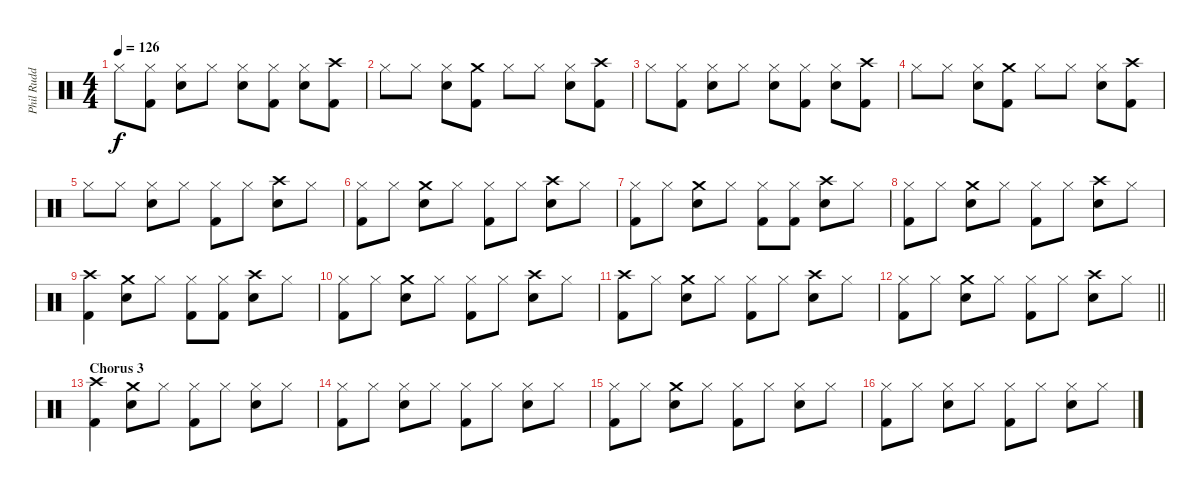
\track ("Phil Rudd (Drums)" "Phil Rudd ") {instrument percussion}
\staff {score}
\articulation defaults
\ts (4 4)
\tempo 126
\clef neutral
\ks c "Hi-Hat (closed)".8{dy f}
("Hi-Hat (closed)" "Kick (hit) 2").8 ("Hi-Hat (closed)" "Snare (hit) 2").8 "Hi-Hat (closed)".8 ("Hi-Hat (closed)" "Snare (hit) 2").8 ("Hi-Hat (closed)" "Kick (hit) 2").8 ("Hi-Hat (closed)" "Snare (hit) 2").8 ("Crash high (hit)" "Kick (hit) 2").8 |
"Hi-Hat (closed)".8 "Hi-Hat (closed)".8 ("Hi-Hat (closed)" "Snare (hit) 2").8 ("Crash medium (hit)" "Kick (hit) 2").8 "Hi-Hat (closed)".8 "Hi-Hat (closed)".8 ("Hi-Hat (closed)" "Snare (hit) 2").8 ("Crash high (hit)" "Kick (hit) 2").8 |
"Hi-Hat (closed)".8 ("Hi-Hat (closed)" "Kick (hit) 2").8 ("Hi-Hat (closed)" "Snare (hit) 2").8 "Hi-Hat (closed)".8 ("Hi-Hat (closed)" "Snare (hit) 2").8 ("Hi-Hat (closed)" "Kick (hit) 2").8 ("Hi-Hat (closed)" "Snare (hit) 2").8 ("Crash high (hit)" "Kick (hit) 2").8 |
"Hi-Hat (closed)".8 "Hi-Hat (closed)".8 ("Hi-Hat (closed)" "Snare (hit) 2").8 ("Crash medium (hit)" "Kick (hit) 2").8 "Hi-Hat (closed)".8 "Hi-Hat (closed)".8 ("Hi-Hat (closed)" "Snare (hit) 2").8 ("Crash high (hit)" "Kick (hit) 2").8 |
"Hi-Hat (closed)".8 "Hi-Hat (closed)".8 ("Hi-Hat (closed)" "Snare (hit) 2").8 "Hi-Hat (closed)".8 ("Hi-Hat (closed)" "Kick (hit) 2").8 "Hi-Hat (closed)".8 ("Crash high (hit)" "Snare (hit) 2").8 "Hi-Hat (closed)".8 |
("Hi-Hat (closed)" "Kick (hit) 2").8 "Hi-Hat (closed)".8 ("Crash medium (hit)" "Snare (hit) 2").8 "Hi-Hat (closed)".8 ("Hi-Hat (closed)" "Kick (hit) 2").8 "Hi-Hat (closed)".8 ("Crash high (hit)" "Snare (hit) 2").8 "Hi-Hat (closed)".8 |
("Hi-Hat (closed)" "Kick (hit) 2").8 "Hi-Hat (closed)".8 ("Crash medium (hit)" "Snare (hit) 2").8 "Hi-Hat (closed)".8 ("Hi-Hat (closed)" "Kick (hit) 2").8 ("Hi-Hat (closed)" "Kick (hit) 2").8 ("Crash high (hit)" "Snare (hit) 2").8 "Hi-Hat (closed)".8 |
("Hi-Hat (closed)" "Kick (hit) 2").8 "Hi-Hat (closed)".8 ("Crash medium (hit)" "Snare (hit) 2").8 "Hi-Hat (closed)".8 ("Hi-Hat (closed)" "Kick (hit) 2").8 "Hi-Hat (closed)".8 ("Crash high (hit)" "Snare (hit) 2").8 "Hi-Hat (closed)".8 |
("Crash high (hit)" "Kick (hit) 2").4 ("Crash medium (hit)" "Snare (hit) 2").8 "Hi-Hat (closed)".8 ("Hi-Hat (closed)" "Kick (hit) 2").8 ("Hi-Hat (closed)" "Kick (hit) 2").8 ("Crash high (hit)" "Snare (hit) 2").8 "Hi-Hat (closed)".8 |
("Hi-Hat (closed)" "Kick (hit) 2").8 "Hi-Hat (closed)".8 ("Crash medium (hit)" "Snare (hit) 2").8 "Hi-Hat (closed)".8 ("Hi-Hat (closed)" "Kick (hit) 2").8 "Hi-Hat (closed)".8 ("Crash high (hit)" "Snare (hit) 2").8 "Hi-Hat (closed)".8 |
("Crash high (hit)" "Kick (hit) 2").8 "Hi-Hat (closed)".8 ("Crash medium (hit)" "Snare (hit) 2").8 "Hi-Hat (closed)".8 ("Hi-Hat (closed)" "Kick (hit) 2").8 "Hi-Hat (closed)".8 ("Crash high (hit)" "Snare (hit) 2").8 "Hi-Hat (closed)".8 |
\barLineRight lightlight
("Hi-Hat (closed)" "Kick (hit) 2").8 "Hi-Hat (closed)".8 ("Crash medium (hit)" "Snare (hit) 2").8 "Hi-Hat (closed)".8 ("Hi-Hat (closed)" "Kick (hit) 2").8 "Hi-Hat (closed)".8 ("Crash high (hit)" "Snare (hit) 2").8 "Hi-Hat (closed)".8 |
\section ("" "Chorus 3")
("Crash high (hit)" "Kick (hit) 2").4 ("Crash medium (hit)" "Snare (hit) 2").8 "Hi-Hat (closed)".8 ("Hi-Hat (closed)" "Kick (hit) 2").8 "Hi-Hat (closed)".8 ("Hi-Hat (closed)" "Snare (hit) 2").8 "Hi-Hat (closed)".8 |
("Hi-Hat (closed)" "Kick (hit) 2").8 "Hi-Hat (closed)".8 ("Hi-Hat (closed)" "Snare (hit) 2").8 "Hi-Hat (closed)".8 ("Hi-Hat (closed)" "Kick (hit) 2").8 "Hi-Hat (closed)".8 ("Hi-Hat (closed)" "Snare (hit) 2").8 "Hi-Hat (closed)".8 |
("Hi-Hat (closed)" "Kick (hit) 2").8 "Hi-Hat (closed)".8 ("Crash medium (hit)" "Snare (hit) 2").8 "Hi-Hat (closed)".8 ("Hi-Hat (closed)" "Kick (hit) 2").8 "Hi-Hat (closed)".8 ("Hi-Hat (closed)" "Snare (hit) 2").8 "Hi-Hat (closed)".8 |
("Hi-Hat (closed)" "Kick (hit) 2").8 "Hi-Hat (closed)".8 ("Hi-Hat (closed)" "Snare (hit) 2").8 "Hi-Hat (closed)".8 ("Hi-Hat (closed)" "Kick (hit) 2").8 "Hi-Hat (closed)".8 ("Hi-Hat (closed)" "Snare (hit) 2").8 "Hi-Hat (closed)".8
